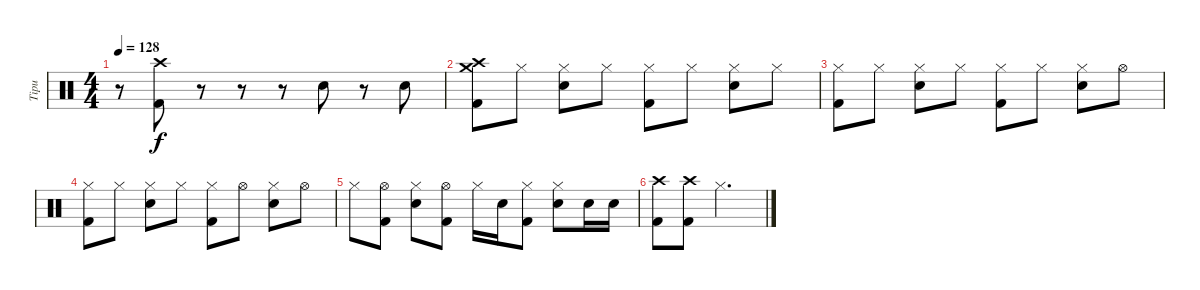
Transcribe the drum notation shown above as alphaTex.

\track ("Tipu" "Tipu") {instrument percussion}
\staff {score}
\articulation defaults
\ts (4 4)
\tempo 128
\clef neutral
\ks c
r.8{dy f} ("Crash high (hit)" "Kick (hit) 2").8 r.8 r.8 r.8 "Electric Snare (hit)".8 r.8 "Electric Snare (hit)".8 |
("Crash medium (hit)" "Crash high (hit)" "Kick (hit) 2").8 "Hi-Hat (closed)".8 ("Hi-Hat (closed)" "Electric Snare (hit)").8 "Hi-Hat (closed)".8 ("Hi-Hat (closed)" "Kick (hit) 2").8 "Hi-Hat (closed)".8 ("Hi-Hat (closed)" "Electric Snare (hit)").8 "Hi-Hat (closed)".8 |
("Hi-Hat (closed)" "Kick (hit) 2").8 "Hi-Hat (closed)".8 ("Hi-Hat (closed)" "Electric Snare (hit)").8 "Hi-Hat (closed)".8 ("Hi-Hat (closed)" "Kick (hit) 2").8 "Hi-Hat (closed)".8 ("Hi-Hat (closed)" "Electric Snare (hit)").8 "Hi-Hat (open)".8 |
("Hi-Hat (closed)" "Kick (hit) 2").8 "Hi-Hat (closed)".8 ("Hi-Hat (closed)" "Electric Snare (hit)").8 "Hi-Hat (closed)".8 ("Hi-Hat (closed)" "Kick (hit) 2").8 "Hi-Hat (open)".8 ("Hi-Hat (closed)" "Electric Snare (hit)").8 "Hi-Hat (open)".8 |
"Hi-Hat (closed)".8 ("Hi-Hat (open)" "Kick (hit) 2").8 ("Hi-Hat (closed)" "Electric Snare (hit)").8 ("Hi-Hat (open)" "Kick (hit) 2").8 "Hi-Hat (closed)".16 "Electric Snare (hit)".16 ("Hi-Hat (closed)" "Kick (hit) 2").8 ("Hi-Hat (closed)" "Electric Snare (hit)").8 "Electric Snare (hit)".16 "Electric Snare (hit)".16 |
("Crash high (hit)" "Kick (hit) 2").8 ("Crash high (hit)" "Kick (hit) 2").8 "Hi-Hat (closed)".2{d}
